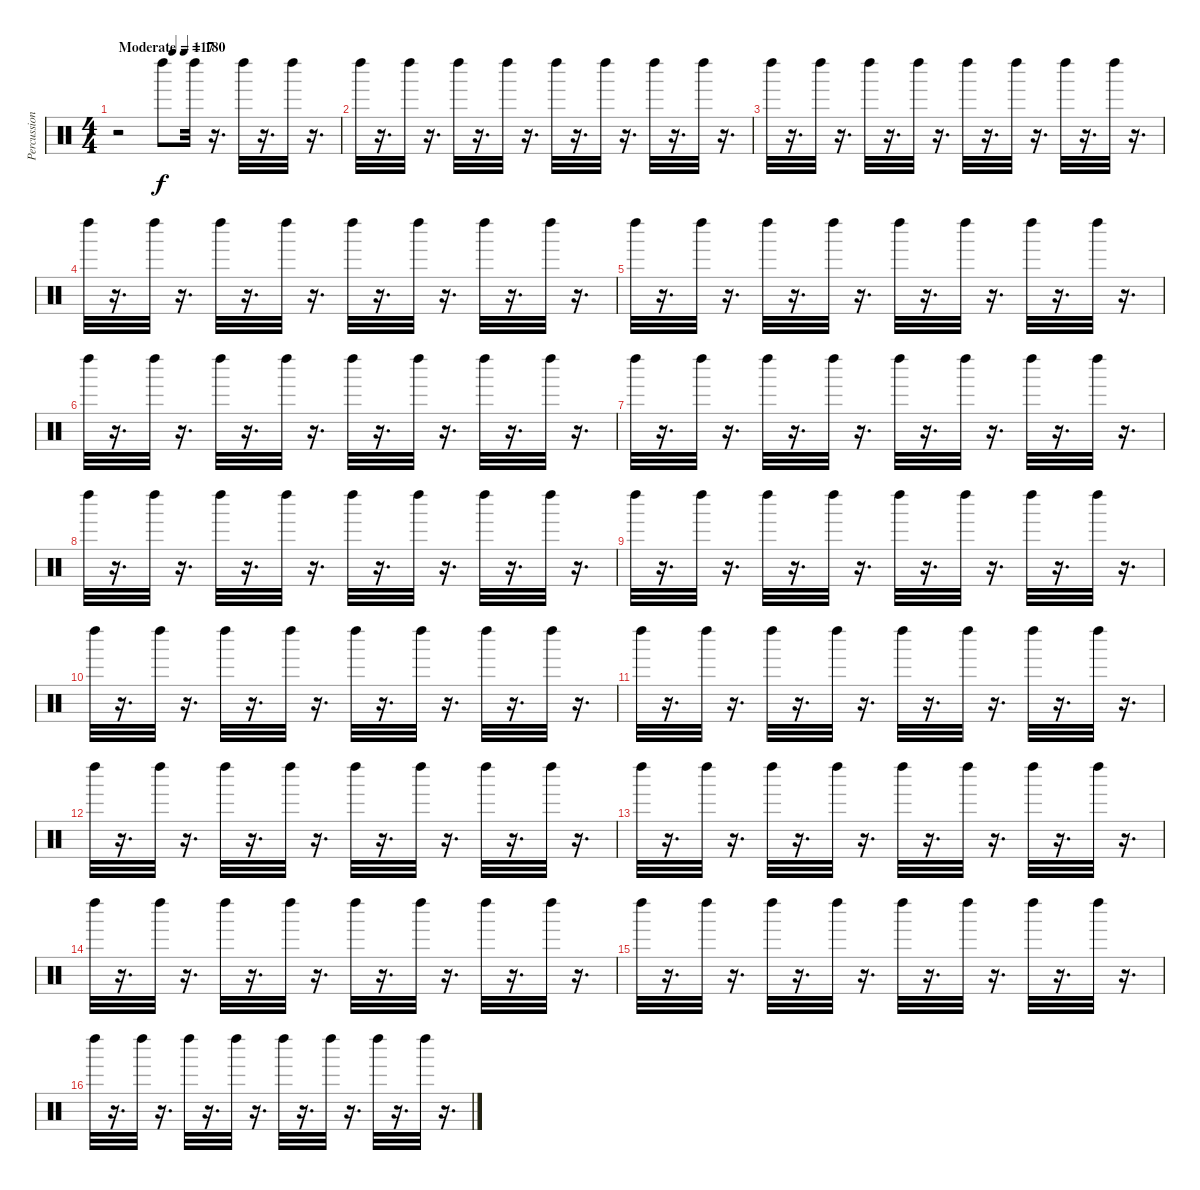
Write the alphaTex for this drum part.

\track ("Percussioni" "Percussion") {instrument percussion}
\staff {score}
\articulation defaults
\ts (4 4)
\tempo (180 "Moderate")
\tempo (117 0.25)
\tempo (180 "Moderate")
\clef neutral
\ks c
r.2{dy f} "Left Maraca (hit)".8 "Left Maraca (hit)".32 r.16{d} "Left Maraca (hit)".32 r.16{d} "Left Maraca (hit)".32 r.16{d} |
"Left Maraca (hit)".32 r.16{d} "Left Maraca (hit)".32 r.16{d} "Left Maraca (hit)".32 r.16{d} "Left Maraca (hit)".32 r.16{d} "Left Maraca (hit)".32 r.16{d} "Left Maraca (hit)".32 r.16{d} "Left Maraca (hit)".32 r.16{d} "Left Maraca (hit)".32 r.16{d} |
"Left Maraca (hit)".32 r.16{d} "Left Maraca (hit)".32 r.16{d} "Left Maraca (hit)".32 r.16{d} "Left Maraca (hit)".32 r.16{d} "Left Maraca (hit)".32 r.16{d} "Left Maraca (hit)".32 r.16{d} "Left Maraca (hit)".32 r.16{d} "Left Maraca (hit)".32 r.16{d} |
"Left Maraca (hit)".32 r.16{d} "Left Maraca (hit)".32 r.16{d} "Left Maraca (hit)".32 r.16{d} "Left Maraca (hit)".32 r.16{d} "Left Maraca (hit)".32 r.16{d} "Left Maraca (hit)".32 r.16{d} "Left Maraca (hit)".32 r.16{d} "Left Maraca (hit)".32 r.16{d} |
"Left Maraca (hit)".32 r.16{d} "Left Maraca (hit)".32 r.16{d} "Left Maraca (hit)".32 r.16{d} "Left Maraca (hit)".32 r.16{d} "Left Maraca (hit)".32 r.16{d} "Left Maraca (hit)".32 r.16{d} "Left Maraca (hit)".32 r.16{d} "Left Maraca (hit)".32 r.16{d} |
"Left Maraca (hit)".32 r.16{d} "Left Maraca (hit)".32 r.16{d} "Left Maraca (hit)".32 r.16{d} "Left Maraca (hit)".32 r.16{d} "Left Maraca (hit)".32 r.16{d} "Left Maraca (hit)".32 r.16{d} "Left Maraca (hit)".32 r.16{d} "Left Maraca (hit)".32 r.16{d} |
"Left Maraca (hit)".32 r.16{d} "Left Maraca (hit)".32 r.16{d} "Left Maraca (hit)".32 r.16{d} "Left Maraca (hit)".32 r.16{d} "Left Maraca (hit)".32 r.16{d} "Left Maraca (hit)".32 r.16{d} "Left Maraca (hit)".32 r.16{d} "Left Maraca (hit)".32 r.16{d} |
"Left Maraca (hit)".32 r.16{d} "Left Maraca (hit)".32 r.16{d} "Left Maraca (hit)".32 r.16{d} "Left Maraca (hit)".32 r.16{d} "Left Maraca (hit)".32 r.16{d} "Left Maraca (hit)".32 r.16{d} "Left Maraca (hit)".32 r.16{d} "Left Maraca (hit)".32 r.16{d} |
"Left Maraca (hit)".32 r.16{d} "Left Maraca (hit)".32 r.16{d} "Left Maraca (hit)".32 r.16{d} "Left Maraca (hit)".32 r.16{d} "Left Maraca (hit)".32 r.16{d} "Left Maraca (hit)".32 r.16{d} "Left Maraca (hit)".32 r.16{d} "Left Maraca (hit)".32 r.16{d} |
"Left Maraca (hit)".32 r.16{d} "Left Maraca (hit)".32 r.16{d} "Left Maraca (hit)".32 r.16{d} "Left Maraca (hit)".32 r.16{d} "Left Maraca (hit)".32 r.16{d} "Left Maraca (hit)".32 r.16{d} "Left Maraca (hit)".32 r.16{d} "Left Maraca (hit)".32 r.16{d} |
"Left Maraca (hit)".32 r.16{d} "Left Maraca (hit)".32 r.16{d} "Left Maraca (hit)".32 r.16{d} "Left Maraca (hit)".32 r.16{d} "Left Maraca (hit)".32 r.16{d} "Left Maraca (hit)".32 r.16{d} "Left Maraca (hit)".32 r.16{d} "Left Maraca (hit)".32 r.16{d} |
"Left Maraca (hit)".32 r.16{d} "Left Maraca (hit)".32 r.16{d} "Left Maraca (hit)".32 r.16{d} "Left Maraca (hit)".32 r.16{d} "Left Maraca (hit)".32 r.16{d} "Left Maraca (hit)".32 r.16{d} "Left Maraca (hit)".32 r.16{d} "Left Maraca (hit)".32 r.16{d} |
"Left Maraca (hit)".32 r.16{d} "Left Maraca (hit)".32 r.16{d} "Left Maraca (hit)".32 r.16{d} "Left Maraca (hit)".32 r.16{d} "Left Maraca (hit)".32 r.16{d} "Left Maraca (hit)".32 r.16{d} "Left Maraca (hit)".32 r.16{d} "Left Maraca (hit)".32 r.16{d} |
"Left Maraca (hit)".32 r.16{d} "Left Maraca (hit)".32 r.16{d} "Left Maraca (hit)".32 r.16{d} "Left Maraca (hit)".32 r.16{d} "Left Maraca (hit)".32 r.16{d} "Left Maraca (hit)".32 r.16{d} "Left Maraca (hit)".32 r.16{d} "Left Maraca (hit)".32 r.16{d} |
"Left Maraca (hit)".32 r.16{d} "Left Maraca (hit)".32 r.16{d} "Left Maraca (hit)".32 r.16{d} "Left Maraca (hit)".32 r.16{d} "Left Maraca (hit)".32 r.16{d} "Left Maraca (hit)".32 r.16{d} "Left Maraca (hit)".32 r.16{d} "Left Maraca (hit)".32 r.16{d} |
"Left Maraca (hit)".32 r.16{d} "Left Maraca (hit)".32 r.16{d} "Left Maraca (hit)".32 r.16{d} "Left Maraca (hit)".32 r.16{d} "Left Maraca (hit)".32 r.16{d} "Left Maraca (hit)".32 r.16{d} "Left Maraca (hit)".32 r.16{d} "Left Maraca (hit)".32 r.16{d}
